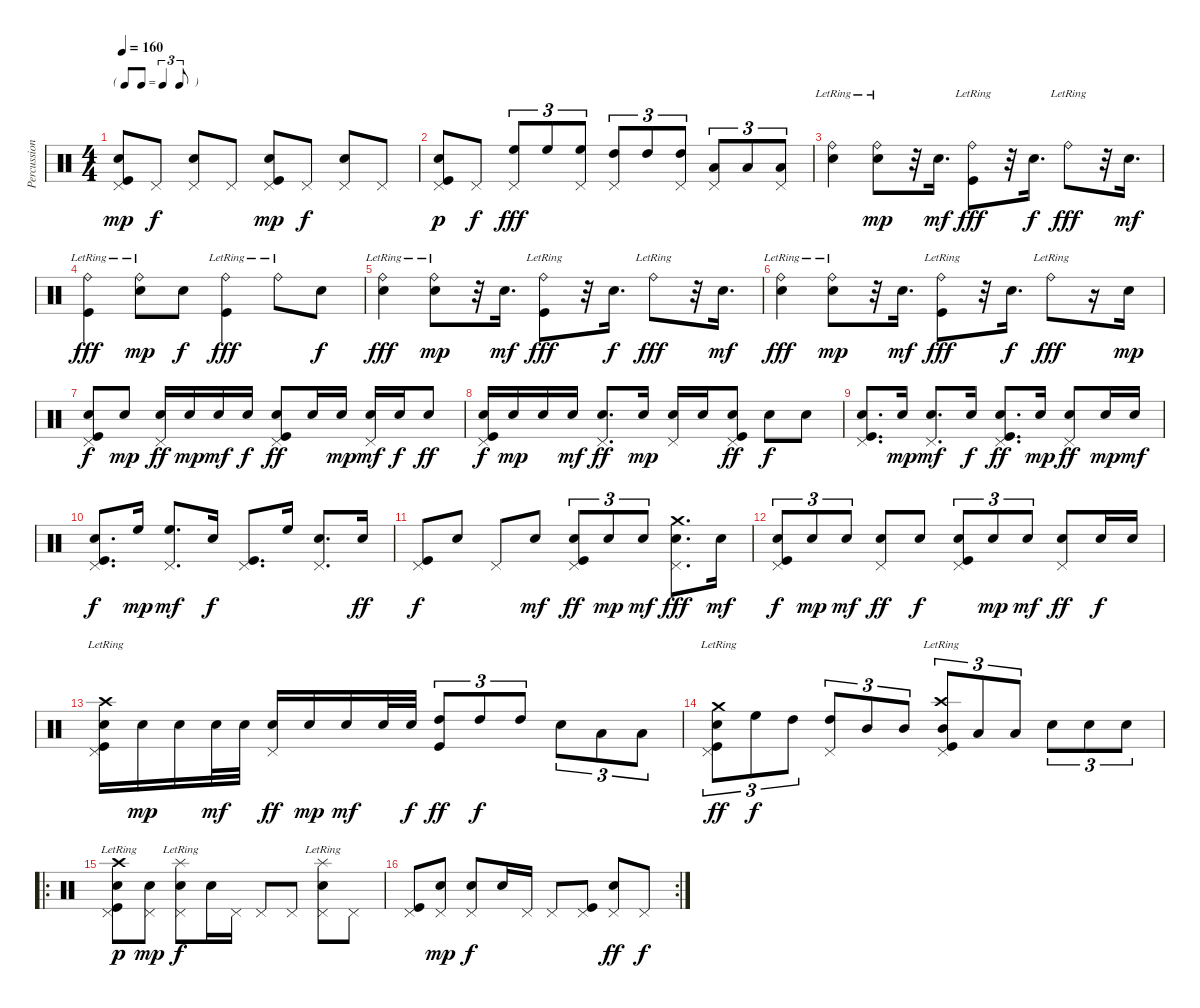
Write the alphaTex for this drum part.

\track ("Percussions" "Percussion") {instrument percussion}
\staff {score}
\articulation defaults
\ts (4 4)
\tf triplet8th
\tempo 160
\clef neutral
\ks c
("Pedal Hi-Hat (hit)" "Snare (hit) 2" "Kick (hit)").8{dy mp} "Pedal Hi-Hat (hit)".8{dy f} ("Pedal Hi-Hat (hit)" "Snare (hit) 2").8 "Pedal Hi-Hat (hit)".8 ("Pedal Hi-Hat (hit)" "Snare (hit) 2" "Kick (hit)").8{dy mp} "Pedal Hi-Hat (hit)".8{dy f} ("Pedal Hi-Hat (hit)" "Snare (hit) 2").8 "Pedal Hi-Hat (hit)".8 |
("Pedal Hi-Hat (hit)" "Snare (hit) 2" "Kick (hit)").8{dy p} "Pedal Hi-Hat (hit)".8{dy f} ("Pedal Hi-Hat (hit)" "High Floor Tom (hit)").8{tu (3 2) dy fff} "High Floor Tom (hit)".8{tu (3 2)} ("Pedal Hi-Hat (hit)" "High Floor Tom (hit)").8{tu (3 2)} ("Pedal Hi-Hat (hit)" "High Tom (hit)").8{tu (3 2)} "High Tom (hit)".8{tu (3 2)} ("Pedal Hi-Hat (hit)" "High Tom (hit)").8{tu (3 2)} ("Pedal Hi-Hat (hit)" "Low Tom (hit)").8{tu (3 2)} "Low Tom (hit)".8{tu (3 2)} ("Pedal Hi-Hat (hit)" "Low Tom (hit)").8{tu (3 2)} |
("Ride (bell)"{lr} "Snare (hit) 2").4 ("Ride (bell)"{lr} "Electric Snare (hit)").8{dy mp} r.32 "Snare (hit) 2".16{d dy mf} ("Ride (bell)"{lr} "Kick (hit)").8{dy fff} r.32 "Snare (hit) 2".16{d dy f} "Ride (bell)"{lr}.8{dy fff} r.32 "Snare (hit) 2".16{d dy mf} |
("Ride (bell)"{lr} "Kick (hit)").4{dy fff} ("Ride (bell)"{lr} "Electric Snare (hit)").8{dy mp} "Snare (hit) 2".8{dy f} ("Ride (bell)"{lr} "Kick (hit)").4{dy fff} "Ride (bell)"{lr}.8 "Electric Snare (hit)".8{dy f} |
("Ride (bell)"{lr} "Snare (hit) 2").4{dy fff} ("Ride (bell)"{lr} "Electric Snare (hit)").8{dy mp} r.32 "Snare (hit) 2".16{d dy mf} ("Ride (bell)"{lr} "Kick (hit)").8{dy fff} r.32 "Snare (hit) 2".16{d dy f} "Ride (bell)"{lr}.8{dy fff} r.32 "Snare (hit) 2".16{d dy mf} |
("Ride (bell)"{lr} "Snare (hit) 2").4{dy fff} ("Ride (bell)"{lr} "Electric Snare (hit)").8{dy mp} r.32 "Snare (hit) 2".16{d dy mf} ("Ride (bell)"{lr} "Kick (hit)").8{dy fff} r.32 "Snare (hit) 2".16{d dy f} "Ride (bell)"{lr}.8{dy fff} r.16 "Snare (hit) 2".16{dy mp} |
("Pedal Hi-Hat (hit)" "Electric Snare (hit)" "Kick (hit)").8{dy f} "Snare (hit) 2".8{dy mp} ("Pedal Hi-Hat (hit)" "Electric Snare (hit)").16{dy ff} "Snare (hit) 2".16{dy mp} "Snare (hit) 2".16{dy mf} "Snare (hit) 2".16{dy f} ("Pedal Hi-Hat (hit)" "Electric Snare (hit)" "Kick (hit)").8{dy ff} "Snare (hit) 2".16 "Snare (hit) 2".16{dy mp} ("Pedal Hi-Hat (hit)" "Snare (hit) 2").16{dy mf} "Electric Snare (hit)".16{dy f} "Electric Snare (hit)".8{dy ff} |
("Pedal Hi-Hat (hit)" "Electric Snare (hit)" "Kick (hit)").16{dy f} "Electric Snare (hit)".16{dy mp} "Electric Snare (hit)".16 "Electric Snare (hit)".16{dy mf} ("Pedal Hi-Hat (hit)" "Electric Snare (hit)").8{d dy ff} "Electric Snare (hit)".16{dy mp} ("Pedal Hi-Hat (hit)" "Electric Snare (hit)").16 "Electric Snare (hit)".16 ("Pedal Hi-Hat (hit)" "Electric Snare (hit)" "Kick (hit)").8{dy ff} "Electric Snare (hit)".8{dy f} "Electric Snare (hit)".8 |
("Pedal Hi-Hat (hit)" "Electric Snare (hit)" "Kick (hit)").8{d} "Electric Snare (hit)".16{dy mp} ("Pedal Hi-Hat (hit)" "Electric Snare (hit)").8{d dy mf} "Electric Snare (hit)".16{dy f} ("Pedal Hi-Hat (hit)" "Electric Snare (hit)" "Kick (hit)").8{d dy ff} "Snare (hit) 2".16{dy mp} ("Pedal Hi-Hat (hit)" "Snare (hit) 2").8{dy ff} "Electric Snare (hit)".16{dy mp} "Electric Snare (hit)".16{dy mf} |
("Pedal Hi-Hat (hit)" "Electric Snare (hit)" "Kick (hit)").8{d dy f} "High Floor Tom (hit)".16{dy mp} ("Pedal Hi-Hat (hit)" "High Floor Tom (hit)").8{d dy mf} "Electric Snare (hit)".16{dy f} ("Pedal Hi-Hat (hit)" "Kick (hit)").8{d} "High Floor Tom (hit)".16 ("Pedal Hi-Hat (hit)" "Electric Snare (hit)").8{d} "Electric Snare (hit)".16{dy ff} |
("Pedal Hi-Hat (hit)" "Kick (hit)").8{dy f} "Snare (hit) 2".8 "Pedal Hi-Hat (hit)".8 "Electric Snare (hit)".8{dy mf} ("Pedal Hi-Hat (hit)" "Electric Snare (hit)" "Kick (hit)").8{tu (3 2) dy ff} "Electric Snare (hit)".8{tu (3 2) dy mp} "Electric Snare (hit)".8{tu (3 2) dy mf} ("Pedal Hi-Hat (hit)" "Crash medium (hit)" "Electric Snare (hit)").8{d dy fff} "Electric Snare (hit)".16{dy mf} |
("Pedal Hi-Hat (hit)" "Electric Snare (hit)" "Kick (hit)").8{tu (3 2) dy f} "Electric Snare (hit)".8{tu (3 2) dy mp} "Electric Snare (hit)".8{tu (3 2) dy mf} ("Pedal Hi-Hat (hit)" "Electric Snare (hit)").8{dy ff} "Snare (hit) 2".8{dy f} ("Pedal Hi-Hat (hit)" "Electric Snare (hit)" "Kick (hit)").8{tu (3 2)} "Snare (hit) 2".8{tu (3 2) dy mp} "Snare (hit) 2".8{tu (3 2) dy mf} ("Pedal Hi-Hat (hit)" "Snare (hit) 2").8{dy ff} "Electric Snare (hit)".16{dy f} "Electric Snare (hit)".16 |
("Pedal Hi-Hat (hit)" "Crash high (hit)"{lr} "Electric Snare (hit)" "Kick (hit)").16 "Snare (hit) 2".16{dy mp} "Snare (hit) 2".16 "Snare (hit) 2".32{dy mf} "Snare (hit) 2".32 ("Pedal Hi-Hat (hit)" "Electric Snare (hit)").16{dy ff} "Snare (hit) 2".16{dy mp} "Snare (hit) 2".16{dy mf} "Snare (hit) 2".32 "Snare (hit) 2".32{dy f} ("High Tom (hit)" "Kick (hit)").8{tu (3 2) dy ff} "High Tom (hit)".8{tu (3 2) dy f} "High Tom (hit)".8{tu (3 2)} "Electric Snare (hit)".8{tu (3 2)} "Low Tom (hit)".8{tu (3 2)} "Low Tom (hit)".8{tu (3 2)} |
("Pedal Hi-Hat (hit)" "Crash medium (hit)"{lr} "Electric Snare (hit)" "Kick (hit)").8{tu (3 2) dy ff} "High Floor Tom (hit)".8{tu (3 2) dy f} "High Tom (hit)".8{tu (3 2)} ("Pedal Hi-Hat (hit)" "High Tom (hit)").8{tu (3 2)} "Mid Tom (hit)".8{tu (3 2)} "Mid Tom (hit)".8{tu (3 2)} ("Pedal Hi-Hat (hit)" "Crash high (hit)"{lr} "Mid Tom (hit)" "Kick (hit)").8{tu (3 2)} "Low Tom (hit)".8{tu (3 2)} "Low Tom (hit)".8{tu (3 2)} "Electric Snare (hit)".8{tu (3 2)} "Electric Snare (hit)".8{tu (3 2)} "Electric Snare (hit)".8{tu (3 2)} |
\ro
("Pedal Hi-Hat (hit)" "Crash high (hit)"{lr} "Snare (hit) 2" "Kick (hit)").8{dy p} ("Pedal Hi-Hat (hit)" "Snare (hit) 2").8{dy mp} ("Pedal Hi-Hat (hit)" "Splash (hit)"{lr} "Snare (hit) 2").8{dy f} "Snare (hit) 2".16 "Pedal Hi-Hat (hit)".16 "Pedal Hi-Hat (hit)".8 "Pedal Hi-Hat (hit)".8 ("Pedal Hi-Hat (hit)" "Splash (hit)"{lr} "Snare (hit) 2").8 "Pedal Hi-Hat (hit)".8 |
\rc 2
("Pedal Hi-Hat (hit)" "Kick (hit)").8 ("Pedal Hi-Hat (hit)" "Snare (hit) 2").8{dy mp} ("Pedal Hi-Hat (hit)" "Snare (hit) 2").8{dy f} "Snare (hit) 2".16 "Pedal Hi-Hat (hit)".16 "Pedal Hi-Hat (hit)".8 ("Pedal Hi-Hat (hit)" "Kick (hit)").8 ("Pedal Hi-Hat (hit)" "Snare (hit) 2").8{dy ff} "Pedal Hi-Hat (hit)".8{dy f}
